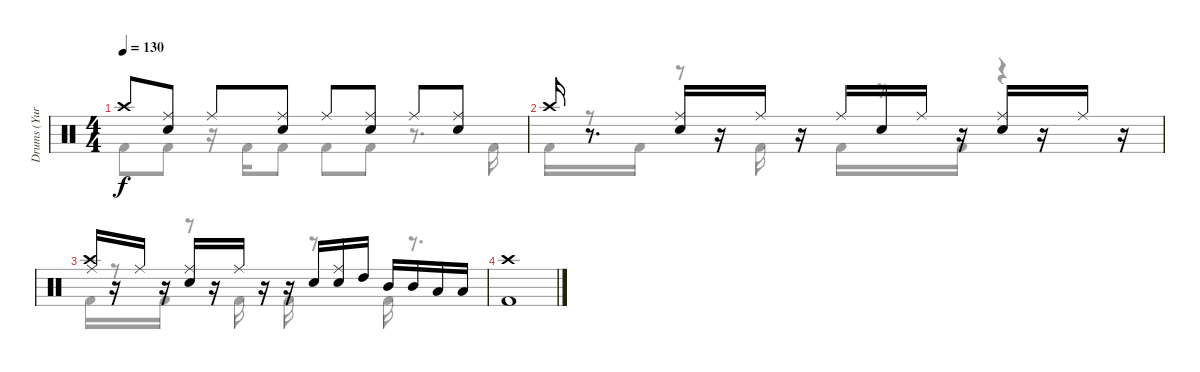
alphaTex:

\track ("Drums (Yuri)" "Drums (Yur") {instrument percussion}
\staff {score}
\articulation defaults
\voice
\ts (4 4)
\tempo 130
\clef neutral
\ks c "Crash high (hit)".8{dy f}
("Ride (middle)" "Electric Snare (hit)").8 "Ride (middle)".8 ("Ride (middle)" "Electric Snare (hit)").8 "Ride (middle)".8 ("Ride (middle)" "Electric Snare (hit)").8 "Ride (middle)".8 ("Ride (middle)" "Electric Snare (hit)").8 |
"Crash high (hit)".16 r.8{d} ("Ride (middle)" "Electric Snare (hit)").16 r.16 "Ride (middle)".16 r.16 "Ride (middle)".16 "Electric Snare (hit)".16 "Ride (middle)".16 r.16 ("Ride (middle)" "Electric Snare (hit)").16 r.16 "Ride (middle)".16 r.16 |
("Ride (middle)" "Crash high (hit)").16 r.16 "Ride (middle)".16 r.16 ("Ride (middle)" "Electric Snare (hit)").16 r.16 "Ride (middle)".16 r.16 r.16 "Electric Snare (hit)".16 ("Ride (middle)" "Electric Snare (hit)").16 "High Tom (hit)".16 "Mid Tom (hit)".16 "Mid Tom (hit)".16 "Low Tom (hit)".16 "Low Tom (hit)".16 |
("Crash high (hit)" "Kick (hit) 2").1
\voice
\clef neutral
\ottava regular
\simile none
\ks c "Kick (hit) 2".8{dy f} "Kick (hit) 2".8
r.16 "Kick (hit) 2".16 "Kick (hit) 2".8 "Kick (hit) 2".8 "Kick (hit) 2".8 r.8{d} "Kick (hit) 2".16 |
"Kick (hit) 2".16 r.8 "Kick (hit) 2".16 r.8 "Kick (hit) 2".16 r.16 "Kick (hit) 2".16 r.8 "Kick (hit) 2".16 r.4 |
"Kick (hit) 2".16 r.8 "Kick (hit) 2".16 r.8 "Kick (hit) 2".16 r.16 "Kick (hit) 2".16 r.8{d} "Kick (hit) 2".16 r.8{d} |
